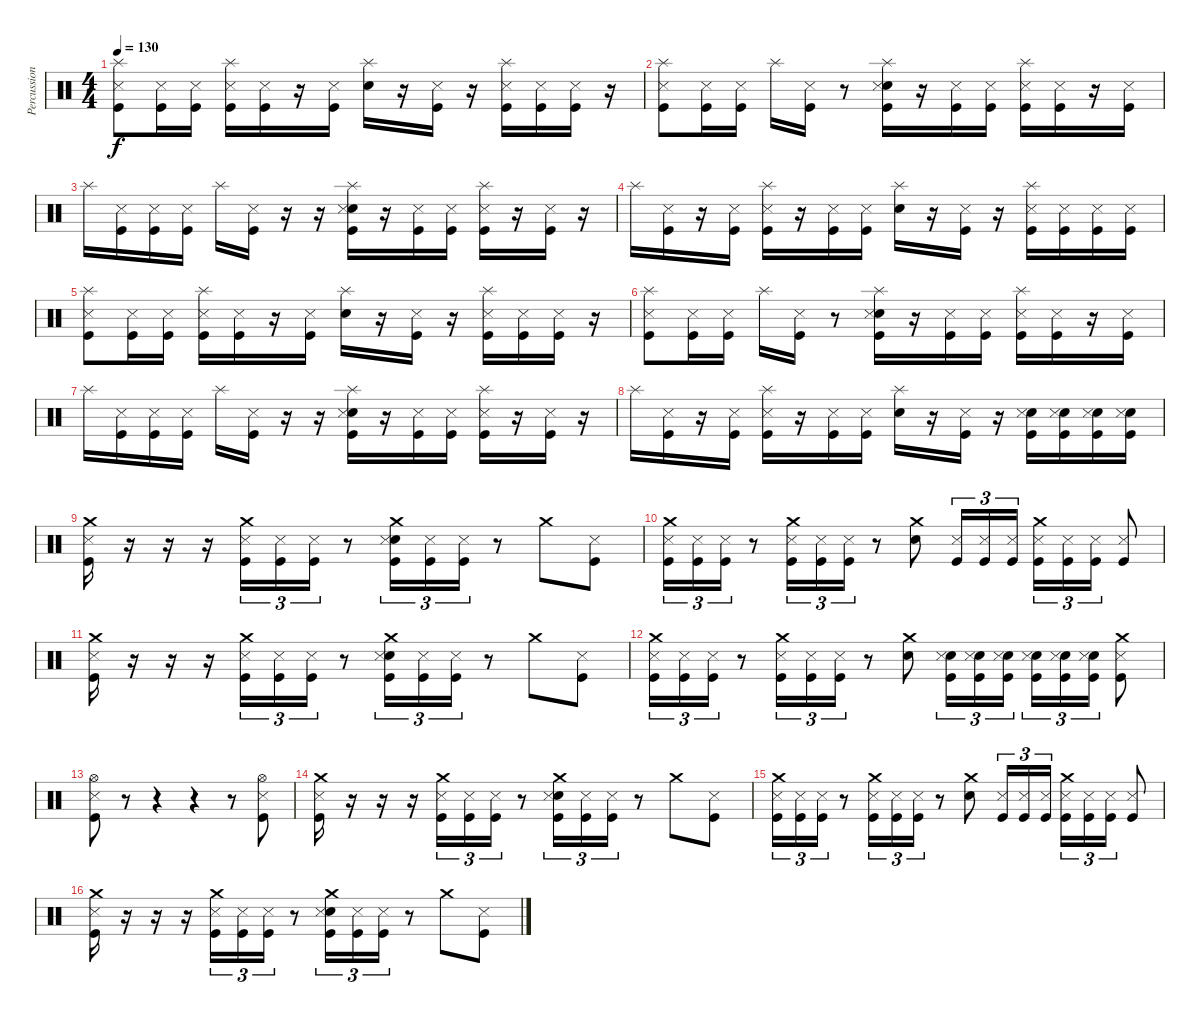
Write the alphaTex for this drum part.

\track ("Percussion" "Percussion") {instrument percussion}
\staff {score}
\articulation defaults
\ts (4 4)
\tempo 130
\clef neutral
\ks c
("Splash (hit)" "Metronome (hit)" "Kick (hit)").8{dy f} ("Metronome (hit)" "Kick (hit)").16 ("Metronome (hit)" "Kick (hit)").16 ("Splash (hit)" "Metronome (hit)" "Kick (hit)").16 ("Metronome (hit)" "Kick (hit)").16 r.16 ("Metronome (hit)" "Kick (hit)").16 ("Splash (hit)" "Electric Snare (hit)").16 r.16 ("Metronome (hit)" "Kick (hit)").16 r.16 ("Splash (hit)" "Metronome (hit)" "Kick (hit)").16 ("Metronome (hit)" "Kick (hit)").16 ("Metronome (hit)" "Kick (hit)").16 r.16 |
("Splash (hit)" "Metronome (hit)" "Kick (hit)").8 ("Metronome (hit)" "Kick (hit)").16 ("Metronome (hit)" "Kick (hit)").16 "Splash (hit)".16 ("Metronome (hit)" "Kick (hit)").16 r.8 ("Splash (hit)" "Electric Snare (hit)" "Metronome (hit)" "Kick (hit)").16 r.16 ("Metronome (hit)" "Kick (hit)").16 ("Metronome (hit)" "Kick (hit)").16 ("Splash (hit)" "Metronome (hit)" "Kick (hit)").16 ("Metronome (hit)" "Kick (hit)").16 r.16 ("Metronome (hit)" "Kick (hit)").16 |
"Splash (hit)".16 ("Metronome (hit)" "Kick (hit)").16 ("Metronome (hit)" "Kick (hit)").16 ("Metronome (hit)" "Kick (hit)").16 "Splash (hit)".16 ("Metronome (hit)" "Kick (hit)").16 r.16 r.16 ("Splash (hit)" "Electric Snare (hit)" "Metronome (hit)" "Kick (hit)").16 r.16 ("Metronome (hit)" "Kick (hit)").16 ("Metronome (hit)" "Kick (hit)").16 ("Splash (hit)" "Metronome (hit)" "Kick (hit)").16 r.16 ("Metronome (hit)" "Kick (hit)").16 r.16 |
"Splash (hit)".16 ("Metronome (hit)" "Kick (hit)").16 r.16 ("Metronome (hit)" "Kick (hit)").16 ("Splash (hit)" "Metronome (hit)" "Kick (hit)").16 r.16 ("Metronome (hit)" "Kick (hit)").16 ("Metronome (hit)" "Kick (hit)").16 ("Splash (hit)" "Electric Snare (hit)").16 r.16 ("Metronome (hit)" "Kick (hit)").16 r.16 ("Splash (hit)" "Metronome (hit)" "Kick (hit)").16 ("Metronome (hit)" "Kick (hit)").16 ("Metronome (hit)" "Kick (hit)").16 ("Metronome (hit)" "Kick (hit)").16 |
("Splash (hit)" "Metronome (hit)" "Kick (hit)").8 ("Metronome (hit)" "Kick (hit)").16 ("Metronome (hit)" "Kick (hit)").16 ("Splash (hit)" "Metronome (hit)" "Kick (hit)").16 ("Metronome (hit)" "Kick (hit)").16 r.16 ("Metronome (hit)" "Kick (hit)").16 ("Splash (hit)" "Electric Snare (hit)").16 r.16 ("Metronome (hit)" "Kick (hit)").16 r.16 ("Splash (hit)" "Metronome (hit)" "Kick (hit)").16 ("Metronome (hit)" "Kick (hit)").16 ("Metronome (hit)" "Kick (hit)").16 r.16 |
("Splash (hit)" "Metronome (hit)" "Kick (hit)").8 ("Metronome (hit)" "Kick (hit)").16 ("Metronome (hit)" "Kick (hit)").16 "Splash (hit)".16 ("Metronome (hit)" "Kick (hit)").16 r.8 ("Splash (hit)" "Electric Snare (hit)" "Metronome (hit)" "Kick (hit)").16 r.16 ("Metronome (hit)" "Kick (hit)").16 ("Metronome (hit)" "Kick (hit)").16 ("Splash (hit)" "Metronome (hit)" "Kick (hit)").16 ("Metronome (hit)" "Kick (hit)").16 r.16 ("Metronome (hit)" "Kick (hit)").16 |
"Splash (hit)".16 ("Metronome (hit)" "Kick (hit)").16 ("Metronome (hit)" "Kick (hit)").16 ("Metronome (hit)" "Kick (hit)").16 "Splash (hit)".16 ("Metronome (hit)" "Kick (hit)").16 r.16 r.16 ("Splash (hit)" "Electric Snare (hit)" "Metronome (hit)" "Kick (hit)").16 r.16 ("Metronome (hit)" "Kick (hit)").16 ("Metronome (hit)" "Kick (hit)").16 ("Splash (hit)" "Metronome (hit)" "Kick (hit)").16 r.16 ("Metronome (hit)" "Kick (hit)").16 r.16 |
"Splash (hit)".16 ("Metronome (hit)" "Kick (hit)").16 r.16 ("Metronome (hit)" "Kick (hit)").16 ("Splash (hit)" "Metronome (hit)" "Kick (hit)").16 r.16 ("Metronome (hit)" "Kick (hit)").16 ("Metronome (hit)" "Kick (hit)").16 ("Splash (hit)" "Electric Snare (hit)").16 r.16 ("Metronome (hit)" "Kick (hit)").16 r.16 ("Electric Snare (hit)" "Metronome (hit)" "Kick (hit)").16 ("Electric Snare (hit)" "Metronome (hit)" "Kick (hit)").16 ("Electric Snare (hit)" "Metronome (hit)" "Kick (hit)").16 ("Electric Snare (hit)" "Metronome (hit)" "Kick (hit)").16 |
("Crash medium (hit)" "Metronome (hit)" "Kick (hit)").16 r.16 r.16 r.16 ("Crash medium (hit)" "Metronome (hit)" "Kick (hit)").16{tu (3 2)} ("Metronome (hit)" "Kick (hit)").16{tu (3 2)} ("Metronome (hit)" "Kick (hit)").16{tu (3 2)} r.8 ("Crash medium (hit)" "Electric Snare (hit)" "Metronome (hit)" "Kick (hit)").16{tu (3 2)} ("Metronome (hit)" "Kick (hit)").16{tu (3 2)} ("Metronome (hit)" "Kick (hit)").16{tu (3 2)} r.8 "Crash medium (hit)".8 ("Metronome (hit)" "Kick (hit)").8 |
("Crash medium (hit)" "Metronome (hit)" "Kick (hit)").16{tu (3 2)} ("Metronome (hit)" "Kick (hit)").16{tu (3 2)} ("Metronome (hit)" "Kick (hit)").16{tu (3 2)} r.8 ("Crash medium (hit)" "Metronome (hit)" "Kick (hit)").16{tu (3 2)} ("Metronome (hit)" "Kick (hit)").16{tu (3 2)} ("Metronome (hit)" "Kick (hit)").16{tu (3 2)} r.8 ("Crash medium (hit)" "Electric Snare (hit)").8 ("Metronome (hit)" "Kick (hit)").16{tu (3 2)} ("Metronome (hit)" "Kick (hit)").16{tu (3 2)} ("Metronome (hit)" "Kick (hit)").16{tu (3 2)} ("Crash medium (hit)" "Metronome (hit)" "Kick (hit)").16{tu (3 2)} ("Metronome (hit)" "Kick (hit)").16{tu (3 2)} ("Metronome (hit)" "Kick (hit)").16{tu (3 2)} ("Metronome (hit)" "Kick (hit)").8 |
("Crash medium (hit)" "Metronome (hit)" "Kick (hit)").16 r.16 r.16 r.16 ("Crash medium (hit)" "Metronome (hit)" "Kick (hit)").16{tu (3 2)} ("Metronome (hit)" "Kick (hit)").16{tu (3 2)} ("Metronome (hit)" "Kick (hit)").16{tu (3 2)} r.8 ("Crash medium (hit)" "Electric Snare (hit)" "Metronome (hit)" "Kick (hit)").16{tu (3 2)} ("Metronome (hit)" "Kick (hit)").16{tu (3 2)} ("Metronome (hit)" "Kick (hit)").16{tu (3 2)} r.8 "Crash medium (hit)".8 ("Metronome (hit)" "Kick (hit)").8 |
("Crash medium (hit)" "Metronome (hit)" "Kick (hit)").16{tu (3 2)} ("Metronome (hit)" "Kick (hit)").16{tu (3 2)} ("Metronome (hit)" "Kick (hit)").16{tu (3 2)} r.8 ("Crash medium (hit)" "Metronome (hit)" "Kick (hit)").16{tu (3 2)} ("Metronome (hit)" "Kick (hit)").16{tu (3 2)} ("Metronome (hit)" "Kick (hit)").16{tu (3 2)} r.8 ("Crash medium (hit)" "Electric Snare (hit)").8 ("Electric Snare (hit)" "Metronome (hit)" "Kick (hit)").16{tu (3 2)} ("Electric Snare (hit)" "Metronome (hit)" "Kick (hit)").16{tu (3 2)} ("Electric Snare (hit)" "Metronome (hit)" "Kick (hit)").16{tu (3 2)} ("Electric Snare (hit)" "Metronome (hit)" "Kick (hit)").16{tu (3 2)} ("Electric Snare (hit)" "Metronome (hit)" "Kick (hit)").16{tu (3 2)} ("Electric Snare (hit)" "Metronome (hit)" "Kick (hit)").16{tu (3 2)} ("Crash medium (hit)" "Metronome (hit)" "Kick (hit)").8 |
("Hi-Hat (open)" "Metronome (hit)" "Kick (hit)").8 r.8 r.4 r.4 r.8 ("Hi-Hat (open)" "Metronome (hit)" "Kick (hit)").8 |
("Crash medium (hit)" "Metronome (hit)" "Kick (hit)").16 r.16 r.16 r.16 ("Crash medium (hit)" "Metronome (hit)" "Kick (hit)").16{tu (3 2)} ("Metronome (hit)" "Kick (hit)").16{tu (3 2)} ("Metronome (hit)" "Kick (hit)").16{tu (3 2)} r.8 ("Crash medium (hit)" "Electric Snare (hit)" "Metronome (hit)" "Kick (hit)").16{tu (3 2)} ("Metronome (hit)" "Kick (hit)").16{tu (3 2)} ("Metronome (hit)" "Kick (hit)").16{tu (3 2)} r.8 "Crash medium (hit)".8 ("Metronome (hit)" "Kick (hit)").8 |
("Crash medium (hit)" "Metronome (hit)" "Kick (hit)").16{tu (3 2)} ("Metronome (hit)" "Kick (hit)").16{tu (3 2)} ("Metronome (hit)" "Kick (hit)").16{tu (3 2)} r.8 ("Crash medium (hit)" "Metronome (hit)" "Kick (hit)").16{tu (3 2)} ("Metronome (hit)" "Kick (hit)").16{tu (3 2)} ("Metronome (hit)" "Kick (hit)").16{tu (3 2)} r.8 ("Crash medium (hit)" "Electric Snare (hit)").8 ("Metronome (hit)" "Kick (hit)").16{tu (3 2)} ("Metronome (hit)" "Kick (hit)").16{tu (3 2)} ("Metronome (hit)" "Kick (hit)").16{tu (3 2)} ("Crash medium (hit)" "Metronome (hit)" "Kick (hit)").16{tu (3 2)} ("Metronome (hit)" "Kick (hit)").16{tu (3 2)} ("Metronome (hit)" "Kick (hit)").16{tu (3 2)} ("Metronome (hit)" "Kick (hit)").8 |
("Crash medium (hit)" "Metronome (hit)" "Kick (hit)").16 r.16 r.16 r.16 ("Crash medium (hit)" "Metronome (hit)" "Kick (hit)").16{tu (3 2)} ("Metronome (hit)" "Kick (hit)").16{tu (3 2)} ("Metronome (hit)" "Kick (hit)").16{tu (3 2)} r.8 ("Crash medium (hit)" "Electric Snare (hit)" "Metronome (hit)" "Kick (hit)").16{tu (3 2)} ("Metronome (hit)" "Kick (hit)").16{tu (3 2)} ("Metronome (hit)" "Kick (hit)").16{tu (3 2)} r.8 "Crash medium (hit)".8 ("Metronome (hit)" "Kick (hit)").8
